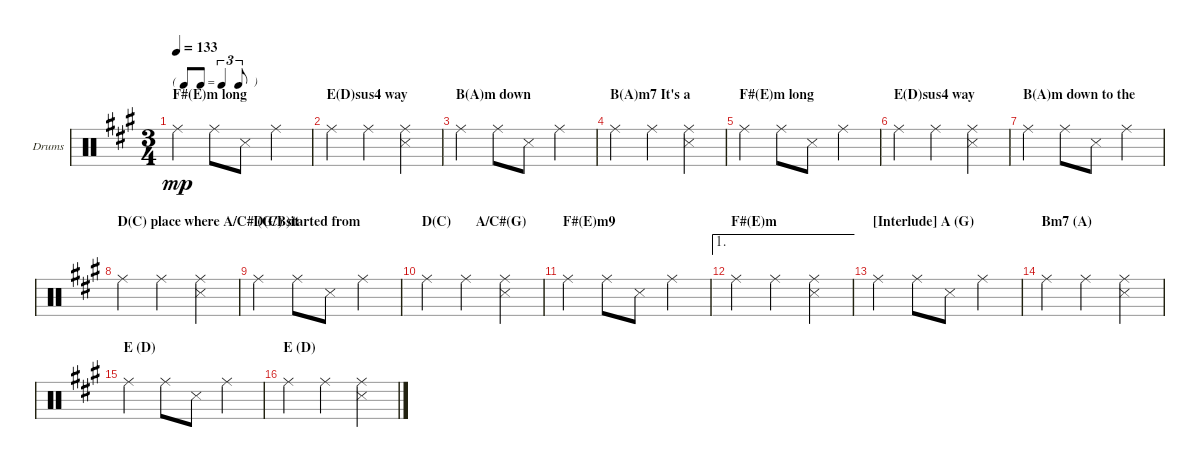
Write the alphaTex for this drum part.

\bracketExtendMode groupsimilarinstruments
\firstSystemTrackNameOrientation horizontal
\otherSystemsTrackNameOrientation horizontal
\track ("Drumkit" "Drums") {solo instrument percussion}
\staff {score}
\articulation defaults
\ts (3 4)
\tf triplet8th
\section ("" "F#(E)m long")
\tempo 133
\clef neutral
\ks a "Ride (middle)".4{dy mp} "Ride (middle)".8 "Snare (side stick) 3".8 "Ride (middle)".4
|
\section ("" "E(D)sus4 way")
"Ride (middle)".4 "Ride (middle)".4 ("Ride (middle)" "Snare (side stick) 3").4 |
\section ("" "B(A)m down")
"Ride (middle)".4 "Ride (middle)".8 "Snare (side stick) 3".8 "Ride (middle)".4 |
\section ("" "B(A)m7 It's a")
"Ride (middle)".4 "Ride (middle)".4 ("Ride (middle)" "Snare (side stick) 3").4 |
\section ("" "F#(E)m long")
"Ride (middle)".4 "Ride (middle)".8 "Snare (side stick) 3".8 "Ride (middle)".4 |
\section ("" "E(D)sus4 way")
"Ride (middle)".4 "Ride (middle)".4 ("Ride (middle)" "Snare (side stick) 3").4 |
\section ("" "B(A)m down to the")
"Ride (middle)".4 "Ride (middle)".8 "Snare (side stick) 3".8 "Ride (middle)".4 |
\section ("" "D(C) place where A/C# (G/B)it")
"Ride (middle)".4 "Ride (middle)".4 ("Ride (middle)" "Snare (side stick) 3").4 |
\section ("" "D(C) started from")
"Ride (middle)".4 "Ride (middle)".8 "Snare (side stick) 3".8 "Ride (middle)".4 |
\section ("" "D(C)       A/C#(G)")
"Ride (middle)".4 "Ride (middle)".4 ("Ride (middle)" "Snare (side stick) 3").4 |
\section ("" "F#(E)m9")
"Ride (middle)".4 "Ride (middle)".8 "Snare (side stick) 3".8 "Ride (middle)".4 |
\ae 1
\section ("" "F#(E)m")
"Ride (middle)".4 "Ride (middle)".4 ("Ride (middle)" "Snare (side stick) 3").4 |
\section ("" "[Interlude] A (G)")
"Ride (middle)".4 "Ride (middle)".8 "Snare (side stick) 3".8 "Ride (middle)".4 |
\section ("" "Bm7 (A)")
"Ride (middle)".4 "Ride (middle)".4 ("Ride (middle)" "Snare (side stick) 3").4 |
\section ("" "E (D)")
"Ride (middle)".4 "Ride (middle)".8 "Snare (side stick) 3".8 "Ride (middle)".4 |
\section ("" "E (D)")
"Ride (middle)".4 "Ride (middle)".4 ("Ride (middle)" "Snare (side stick) 3").4
